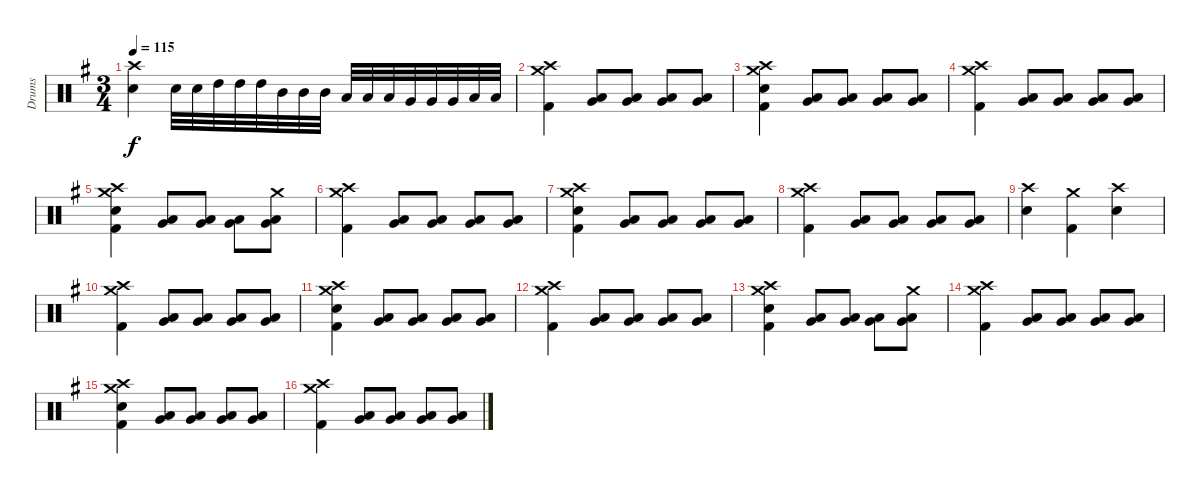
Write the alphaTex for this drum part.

\track ("Drums" "Drums") {instrument percussion}
\staff {score}
\articulation defaults
\ts (3 4)
\tempo 115
\clef neutral
\ks eminor
("Crash high (hit)" "Electric Snare (hit)").4{dy f} "Electric Snare (hit)".32 "Electric Snare (hit)".32 "High Tom (hit)".32 "High Tom (hit)".32 "High Tom (hit)".32 "Mid Tom (hit)".32 "Mid Tom (hit)".32 "Mid Tom (hit)".32 "Low Tom (hit)".32 "Low Tom (hit)".32 "Low Tom (hit)".32 "Very Low Tom (hit)".32 "Very Low Tom (hit)".32 "Very Low Tom (hit)".32 "Low Floor Tom (hit)".32 "Low Floor Tom (hit)".32 |
("Crash high (hit)" "Crash medium (hit)" "Kick (hit) 2").4 ("Low Floor Tom (hit)" "Very Low Tom (hit)").8 ("Low Floor Tom (hit)" "Very Low Tom (hit)").8 ("Low Floor Tom (hit)" "Very Low Tom (hit)").8 ("Low Floor Tom (hit)" "Very Low Tom (hit)").8 |
("Crash high (hit)" "Crash medium (hit)" "Electric Snare (hit)" "Kick (hit) 2").4 ("Low Floor Tom (hit)" "Very Low Tom (hit)").8 ("Low Floor Tom (hit)" "Very Low Tom (hit)").8 ("Low Floor Tom (hit)" "Very Low Tom (hit)").8 ("Low Floor Tom (hit)" "Very Low Tom (hit)").8 |
("Crash high (hit)" "Crash medium (hit)" "Kick (hit) 2").4 ("Low Floor Tom (hit)" "Very Low Tom (hit)").8 ("Low Floor Tom (hit)" "Very Low Tom (hit)").8 ("Low Floor Tom (hit)" "Very Low Tom (hit)").8 ("Low Floor Tom (hit)" "Very Low Tom (hit)").8 |
("Crash high (hit)" "Crash medium (hit)" "Electric Snare (hit)" "Kick (hit) 2").4 ("Low Floor Tom (hit)" "Very Low Tom (hit)").8 ("Low Floor Tom (hit)" "Very Low Tom (hit)").8 ("Low Floor Tom (hit)" "Very Low Tom (hit)").8 ("Crash medium (hit)" "Low Floor Tom (hit)" "Very Low Tom (hit)").8 |
("Crash high (hit)" "Crash medium (hit)" "Kick (hit) 2").4 ("Low Floor Tom (hit)" "Very Low Tom (hit)").8 ("Low Floor Tom (hit)" "Very Low Tom (hit)").8 ("Low Floor Tom (hit)" "Very Low Tom (hit)").8 ("Low Floor Tom (hit)" "Very Low Tom (hit)").8 |
("Crash high (hit)" "Crash medium (hit)" "Electric Snare (hit)" "Kick (hit) 2").4 ("Low Floor Tom (hit)" "Very Low Tom (hit)").8 ("Low Floor Tom (hit)" "Very Low Tom (hit)").8 ("Low Floor Tom (hit)" "Very Low Tom (hit)").8 ("Low Floor Tom (hit)" "Very Low Tom (hit)").8 |
("Crash high (hit)" "Crash medium (hit)" "Kick (hit) 2").4 ("Low Floor Tom (hit)" "Very Low Tom (hit)").8 ("Low Floor Tom (hit)" "Very Low Tom (hit)").8 ("Low Floor Tom (hit)" "Very Low Tom (hit)").8 ("Low Floor Tom (hit)" "Very Low Tom (hit)").8 |
("Crash high (hit)" "Electric Snare (hit)").4 ("Crash medium (hit)" "Kick (hit) 2").4 ("Crash high (hit)" "Electric Snare (hit)").4 |
("Crash high (hit)" "Crash medium (hit)" "Kick (hit) 2").4 ("Low Floor Tom (hit)" "Very Low Tom (hit)").8 ("Low Floor Tom (hit)" "Very Low Tom (hit)").8 ("Low Floor Tom (hit)" "Very Low Tom (hit)").8 ("Low Floor Tom (hit)" "Very Low Tom (hit)").8 |
("Crash high (hit)" "Crash medium (hit)" "Electric Snare (hit)" "Kick (hit) 2").4 ("Low Floor Tom (hit)" "Very Low Tom (hit)").8 ("Low Floor Tom (hit)" "Very Low Tom (hit)").8 ("Low Floor Tom (hit)" "Very Low Tom (hit)").8 ("Low Floor Tom (hit)" "Very Low Tom (hit)").8 |
("Crash high (hit)" "Crash medium (hit)" "Kick (hit) 2").4 ("Low Floor Tom (hit)" "Very Low Tom (hit)").8 ("Low Floor Tom (hit)" "Very Low Tom (hit)").8 ("Low Floor Tom (hit)" "Very Low Tom (hit)").8 ("Low Floor Tom (hit)" "Very Low Tom (hit)").8 |
("Crash high (hit)" "Crash medium (hit)" "Electric Snare (hit)" "Kick (hit) 2").4 ("Low Floor Tom (hit)" "Very Low Tom (hit)").8 ("Low Floor Tom (hit)" "Very Low Tom (hit)").8 ("Low Floor Tom (hit)" "Very Low Tom (hit)").8 ("Crash medium (hit)" "Low Floor Tom (hit)" "Very Low Tom (hit)").8 |
("Crash high (hit)" "Crash medium (hit)" "Kick (hit) 2").4 ("Low Floor Tom (hit)" "Very Low Tom (hit)").8 ("Low Floor Tom (hit)" "Very Low Tom (hit)").8 ("Low Floor Tom (hit)" "Very Low Tom (hit)").8 ("Low Floor Tom (hit)" "Very Low Tom (hit)").8 |
("Crash high (hit)" "Crash medium (hit)" "Electric Snare (hit)" "Kick (hit) 2").4 ("Low Floor Tom (hit)" "Very Low Tom (hit)").8 ("Low Floor Tom (hit)" "Very Low Tom (hit)").8 ("Low Floor Tom (hit)" "Very Low Tom (hit)").8 ("Low Floor Tom (hit)" "Very Low Tom (hit)").8 |
("Crash high (hit)" "Crash medium (hit)" "Kick (hit) 2").4 ("Low Floor Tom (hit)" "Very Low Tom (hit)").8 ("Low Floor Tom (hit)" "Very Low Tom (hit)").8 ("Low Floor Tom (hit)" "Very Low Tom (hit)").8 ("Low Floor Tom (hit)" "Very Low Tom (hit)").8
